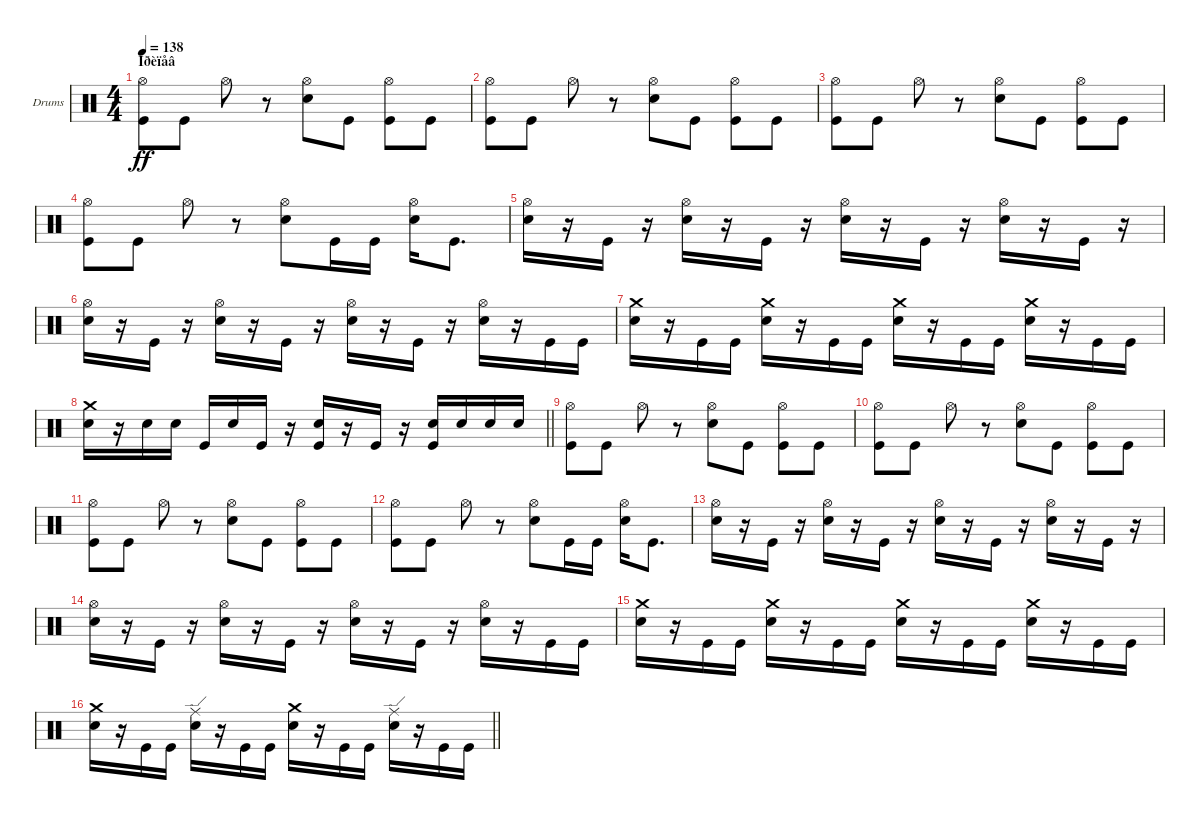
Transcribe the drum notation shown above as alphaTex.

\bracketExtendMode groupsimilarinstruments
\firstSystemTrackNameOrientation horizontal
\otherSystemsTrackNameOrientation horizontal
\track ("Drumkit" "Drums") {instrument percussion}
\staff {score}
\articulation defaults
\ts (4 4)
\section ("" "Ïðèïåâ")
\tempo 138
\clef neutral
\ks c
("Kick (hit)" "Hi-Hat (open)").8{dy ff} "Kick (hit)".8 "Hi-Hat (open)".8 r.8 ("Snare (hit) 2" "Hi-Hat (open)").8 "Kick (hit)".8 ("Kick (hit)" "Hi-Hat (open)").8 "Kick (hit)".8 |
("Kick (hit)" "Hi-Hat (open)").8 "Kick (hit)".8 "Hi-Hat (open)".8 r.8 ("Snare (hit) 2" "Hi-Hat (open)").8 "Kick (hit)".8 ("Kick (hit)" "Hi-Hat (open)").8 "Kick (hit)".8 |
("Kick (hit)" "Hi-Hat (open)").8 "Kick (hit)".8 "Hi-Hat (open)".8 r.8 ("Snare (hit) 2" "Hi-Hat (open)").8 "Kick (hit)".8 ("Kick (hit)" "Hi-Hat (open)").8 "Kick (hit)".8 |
("Kick (hit)" "Hi-Hat (open)").8 "Kick (hit)".8 "Hi-Hat (open)".8 r.8 ("Snare (hit) 2" "Hi-Hat (open)").8 "Kick (hit)".16 "Kick (hit)".16 ("Snare (hit) 2" "Hi-Hat (open)").16 "Kick (hit)".8{d} |
("Snare (hit) 2" "Hi-Hat (open)").16 r.16 "Kick (hit)".16 r.16 ("Snare (hit) 2" "Hi-Hat (open)").16 r.16 "Kick (hit)".16 r.16 ("Snare (hit) 2" "Hi-Hat (open)").16 r.16 "Kick (hit)".16 r.16 ("Snare (hit) 2" "Hi-Hat (open)").16 r.16 "Kick (hit)".16 r.16 |
("Snare (hit) 2" "Hi-Hat (open)").16 r.16 "Kick (hit)".16 r.16 ("Snare (hit) 2" "Hi-Hat (open)").16 r.16 "Kick (hit)".16 r.16 ("Snare (hit) 2" "Hi-Hat (open)").16 r.16 "Kick (hit)".16 r.16 ("Snare (hit) 2" "Hi-Hat (open)").16 r.16 "Kick (hit)".16 "Kick (hit)".16 |
("Snare (hit) 2" "Crash medium (hit)").16 r.16 "Kick (hit)".16 "Kick (hit)".16 ("Snare (hit) 2" "Crash medium (hit)").16 r.16 "Kick (hit)".16 "Kick (hit)".16 ("Snare (hit) 2" "Crash medium (hit)").16 r.16 "Kick (hit)".16 "Kick (hit)".16 ("Snare (hit) 2" "Crash medium (hit)").16 r.16 "Kick (hit)".16 "Kick (hit)".16 |
\barLineRight lightlight
("Snare (hit) 2" "Crash medium (hit)").16 r.16 "Snare (hit) 2".16 "Snare (hit) 2".16 "Kick (hit)".16 "Snare (hit) 2".16 "Kick (hit)".16 r.16 ("Snare (hit) 2" "Kick (hit)").16 r.16 "Kick (hit)".16 r.16 ("Snare (hit) 2" "Kick (hit)").16 "Snare (hit) 2".16 "Snare (hit) 2".16 "Snare (hit) 2".16 |
("Kick (hit)" "Hi-Hat (open)").8 "Kick (hit)".8 "Hi-Hat (open)".8 r.8 ("Snare (hit) 2" "Hi-Hat (open)").8 "Kick (hit)".8 ("Kick (hit)" "Hi-Hat (open)").8 "Kick (hit)".8 |
("Kick (hit)" "Hi-Hat (open)").8 "Kick (hit)".8 "Hi-Hat (open)".8 r.8 ("Snare (hit) 2" "Hi-Hat (open)").8 "Kick (hit)".8 ("Kick (hit)" "Hi-Hat (open)").8 "Kick (hit)".8 |
("Kick (hit)" "Hi-Hat (open)").8 "Kick (hit)".8 "Hi-Hat (open)".8 r.8 ("Snare (hit) 2" "Hi-Hat (open)").8 "Kick (hit)".8 ("Kick (hit)" "Hi-Hat (open)").8 "Kick (hit)".8 |
("Kick (hit)" "Hi-Hat (open)").8 "Kick (hit)".8 "Hi-Hat (open)".8 r.8 ("Snare (hit) 2" "Hi-Hat (open)").8 "Kick (hit)".16 "Kick (hit)".16 ("Snare (hit) 2" "Hi-Hat (open)").16 "Kick (hit)".8{d} |
("Snare (hit) 2" "Hi-Hat (open)").16 r.16 "Kick (hit)".16 r.16 ("Snare (hit) 2" "Hi-Hat (open)").16 r.16 "Kick (hit)".16 r.16 ("Snare (hit) 2" "Hi-Hat (open)").16 r.16 "Kick (hit)".16 r.16 ("Snare (hit) 2" "Hi-Hat (open)").16 r.16 "Kick (hit)".16 r.16 |
("Snare (hit) 2" "Hi-Hat (open)").16 r.16 "Kick (hit)".16 r.16 ("Snare (hit) 2" "Hi-Hat (open)").16 r.16 "Kick (hit)".16 r.16 ("Snare (hit) 2" "Hi-Hat (open)").16 r.16 "Kick (hit)".16 r.16 ("Snare (hit) 2" "Hi-Hat (open)").16 r.16 "Kick (hit)".16 "Kick (hit)".16 |
("Snare (hit) 2" "Crash medium (hit)").16 r.16 "Kick (hit)".16 "Kick (hit)".16 ("Snare (hit) 2" "Crash medium (hit)").16 r.16 "Kick (hit)".16 "Kick (hit)".16 ("Snare (hit) 2" "Crash medium (hit)").16 r.16 "Kick (hit)".16 "Kick (hit)".16 ("Snare (hit) 2" "Crash medium (hit)").16 r.16 "Kick (hit)".16 "Kick (hit)".16 |
\barLineRight lightlight
("Snare (hit) 2" "Crash medium (hit)").16 r.16 "Kick (hit)".16 "Kick (hit)".16 ("Snare (hit) 2" "Ride (edge)").16 r.16 "Kick (hit)".16 "Kick (hit)".16 ("Snare (hit) 2" "Crash medium (hit)").16 r.16 "Kick (hit)".16 "Kick (hit)".16 ("Snare (hit) 2" "Ride (edge)").16 r.16 "Kick (hit)".16 "Kick (hit)".16
